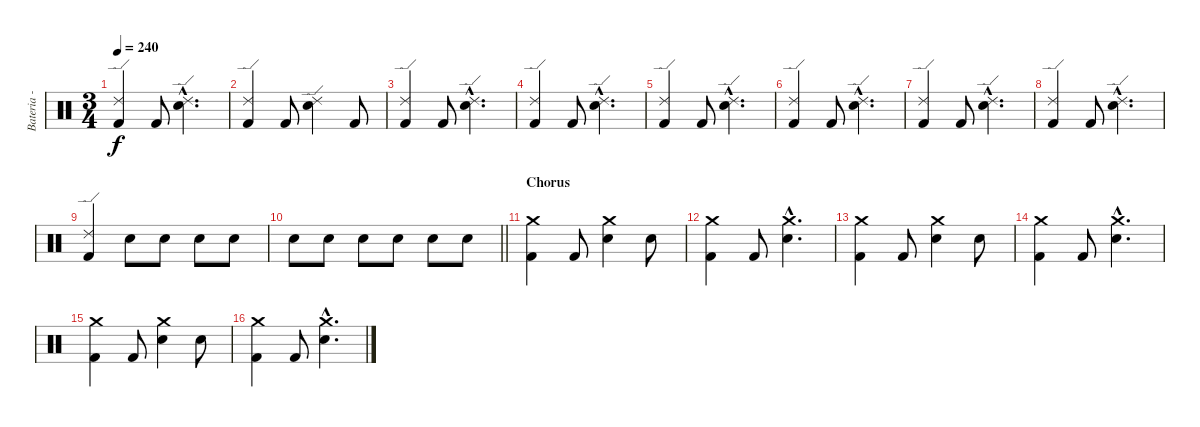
\track ("Bateria - Larzon" "Bateria - ") {instrument percussion}
\staff {score}
\articulation defaults
\ts (3 4)
\tempo 240
\clef neutral
\ks c
("Kick (hit) 2" "Ride (edge) 2").4{dy f} "Kick (hit) 2".8 ("Snare (hit) 2"{hac} "Ride (edge) 2"{hac}).4{d} |
("Kick (hit) 2" "Ride (edge) 2").4 "Kick (hit) 2".8 ("Snare (hit) 2" "Ride (edge) 2").4 "Kick (hit) 2".8 |
("Kick (hit) 2" "Ride (edge) 2").4 "Kick (hit) 2".8 ("Snare (hit) 2"{hac} "Ride (edge) 2"{hac}).4{d} |
("Kick (hit) 2" "Ride (edge) 2").4 "Kick (hit) 2".8 ("Snare (hit) 2"{hac} "Ride (edge) 2"{hac}).4{d} |
("Kick (hit) 2" "Ride (edge) 2").4 "Kick (hit) 2".8 ("Snare (hit) 2"{hac} "Ride (edge) 2"{hac}).4{d} |
("Kick (hit) 2" "Ride (edge) 2").4 "Kick (hit) 2".8 ("Snare (hit) 2"{hac} "Ride (edge) 2"{hac}).4{d} |
("Kick (hit) 2" "Ride (edge) 2").4 "Kick (hit) 2".8 ("Snare (hit) 2"{hac} "Ride (edge) 2"{hac}).4{d} |
("Kick (hit) 2" "Ride (edge) 2").4 "Kick (hit) 2".8 ("Snare (hit) 2"{hac} "Ride (edge) 2"{hac}).4{d} |
("Kick (hit) 2" "Ride (edge) 2").4 "Snare (hit) 2".8 "Snare (hit) 2".8 "Snare (hit) 2".8 "Snare (hit) 2".8 |
\barLineRight lightlight "Snare (hit) 2".8 "Snare (hit) 2".8 "Snare (hit) 2".8 "Snare (hit) 2".8 "Snare (hit) 2".8 "Snare (hit) 2".8
|
\section ("" "Chorus")
("Kick (hit) 2" "Crash medium (hit)").4 "Kick (hit) 2".8 ("Snare (hit) 2" "Crash medium (hit)").4 "Snare (hit) 2".8 |
("Kick (hit) 2" "Crash medium (hit)").4 "Kick (hit) 2".8 ("Snare (hit) 2"{hac} "Crash medium (hit)"{hac}).4{d} |
("Kick (hit) 2" "Crash medium (hit)").4 "Kick (hit) 2".8 ("Snare (hit) 2" "Crash medium (hit)").4 "Snare (hit) 2".8 |
("Kick (hit) 2" "Crash medium (hit)").4 "Kick (hit) 2".8 ("Snare (hit) 2"{hac} "Crash medium (hit)"{hac}).4{d} |
("Kick (hit) 2" "Crash medium (hit)").4 "Kick (hit) 2".8 ("Snare (hit) 2" "Crash medium (hit)").4 "Snare (hit) 2".8 |
("Kick (hit) 2" "Crash medium (hit)").4 "Kick (hit) 2".8 ("Snare (hit) 2"{hac} "Crash medium (hit)"{hac}).4{d}
